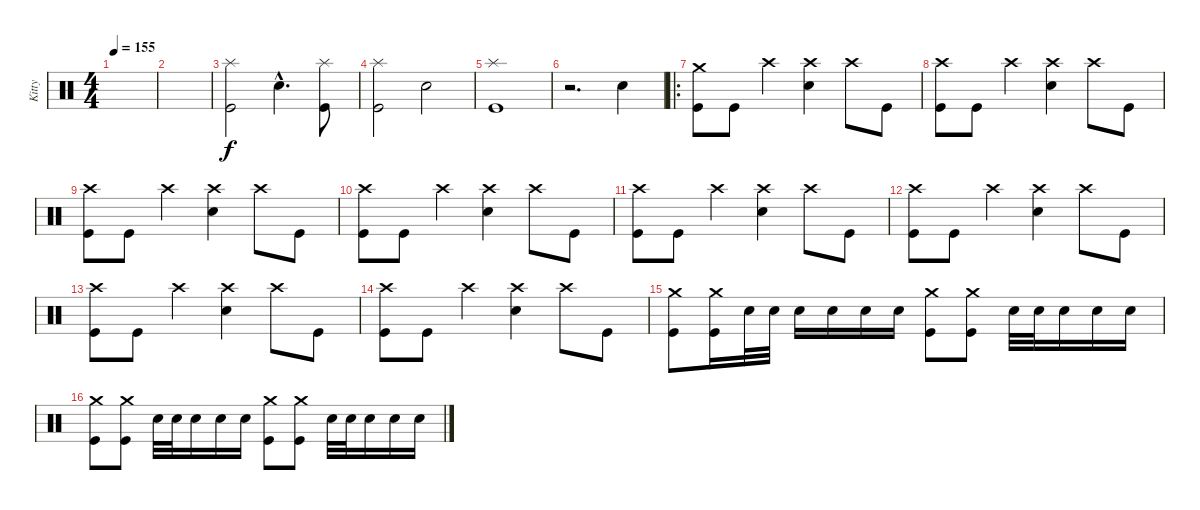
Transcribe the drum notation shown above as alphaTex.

\track ("Kitty" "Kitty") {instrument percussion}
\staff {score}
\articulation defaults
\ts (4 4)
\tempo 155
\clef neutral
\ks c
|
|
("Splash (hit)" "Kick (hit)").2 "Electric Snare (hit)"{hac}.4{d} ("Splash (hit)" "Kick (hit)").8 |
("Splash (hit)" "Kick (hit)").2 "Electric Snare (hit)".2 |
("Splash (hit)" "Kick (hit)").1 |
r.2{d} "Electric Snare (hit)".4 |
\ro
("Crash medium (hit)" "Kick (hit)").8 "Kick (hit)".8 "Crash high (hit)".4 ("Crash high (hit)" "Electric Snare (hit)").4 "Crash high (hit)".8 "Kick (hit)".8 |
("Crash high (hit)" "Kick (hit)").8 "Kick (hit)".8 "Crash high (hit)".4 ("Crash high (hit)" "Electric Snare (hit)").4 "Crash high (hit)".8 "Kick (hit)".8 |
("Crash high (hit)" "Kick (hit)").8 "Kick (hit)".8 "Crash high (hit)".4 ("Crash high (hit)" "Electric Snare (hit)").4 "Crash high (hit)".8 "Kick (hit)".8 |
("Crash high (hit)" "Kick (hit)").8 "Kick (hit)".8 "Crash high (hit)".4 ("Crash high (hit)" "Electric Snare (hit)").4 "Crash high (hit)".8 "Kick (hit)".8 |
("Crash high (hit)" "Kick (hit)").8 "Kick (hit)".8 "Crash high (hit)".4 ("Crash high (hit)" "Electric Snare (hit)").4 "Crash high (hit)".8 "Kick (hit)".8 |
("Crash high (hit)" "Kick (hit)").8 "Kick (hit)".8 "Crash high (hit)".4 ("Crash high (hit)" "Electric Snare (hit)").4 "Crash high (hit)".8 "Kick (hit)".8 |
("Crash high (hit)" "Kick (hit)").8 "Kick (hit)".8 "Crash high (hit)".4 ("Crash high (hit)" "Electric Snare (hit)").4 "Crash high (hit)".8 "Kick (hit)".8 |
("Crash high (hit)" "Kick (hit)").8 "Kick (hit)".8 "Crash high (hit)".4 ("Crash high (hit)" "Electric Snare (hit)").4 "Crash high (hit)".8 "Kick (hit)".8 |
("Crash medium (hit)" "Kick (hit)").8 ("Crash medium (hit)" "Kick (hit)").16 "Electric Snare (hit)".32 "Electric Snare (hit)".32 "Electric Snare (hit)".16 "Electric Snare (hit)".16 "Electric Snare (hit)".16 "Electric Snare (hit)".16 ("Crash medium (hit)" "Kick (hit)").8 ("Crash medium (hit)" "Kick (hit)").8 "Electric Snare (hit)".32 "Electric Snare (hit)".32 "Electric Snare (hit)".16 "Electric Snare (hit)".16 "Electric Snare (hit)".16 |
("Crash medium (hit)" "Kick (hit)").8 ("Crash medium (hit)" "Kick (hit)").8 "Electric Snare (hit)".32 "Electric Snare (hit)".32 "Electric Snare (hit)".16 "Electric Snare (hit)".16 "Electric Snare (hit)".16 ("Crash medium (hit)" "Kick (hit)").8 ("Crash medium (hit)" "Kick (hit)").8 "Electric Snare (hit)".32 "Electric Snare (hit)".32 "Electric Snare (hit)".16 "Electric Snare (hit)".16 "Electric Snare (hit)".16
